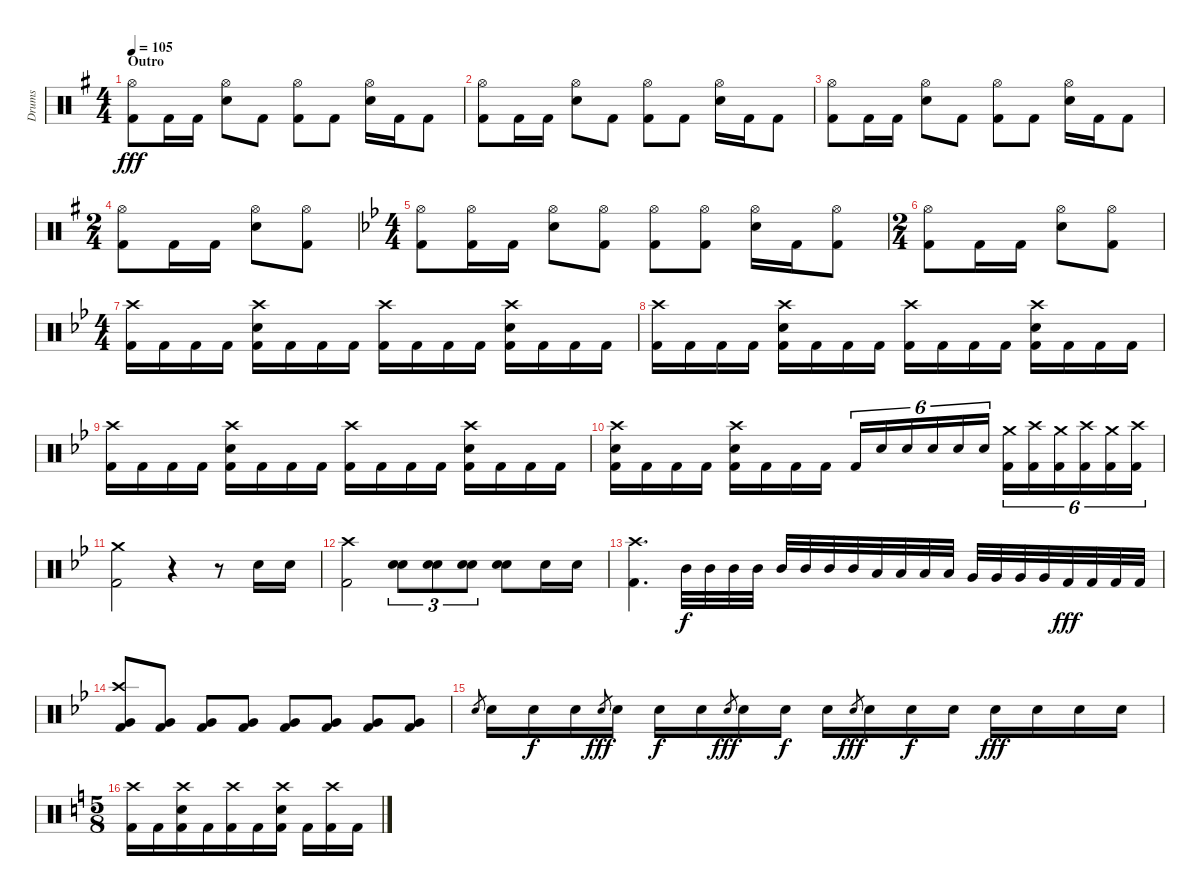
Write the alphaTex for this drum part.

\track ("Drums" "Drums") {instrument percussion}
\staff {score}
\articulation defaults
\ts (4 4)
\section ("" "Outro")
\tempo 105
\clef neutral
\ks eminor
("Hi-Hat (open)" "Kick (hit) 2").8{dy fff} "Kick (hit) 2".16 "Kick (hit) 2".16 ("Hi-Hat (open)" "Snare (hit) 2").8 "Kick (hit) 2".8 ("Hi-Hat (open)" "Kick (hit) 2").8 "Kick (hit) 2".8 ("Hi-Hat (open)" "Snare (hit) 2").16 "Kick (hit) 2".16 "Kick (hit) 2".8 |
("Hi-Hat (open)" "Kick (hit) 2").8 "Kick (hit) 2".16 "Kick (hit) 2".16 ("Hi-Hat (open)" "Snare (hit) 2").8 "Kick (hit) 2".8 ("Hi-Hat (open)" "Kick (hit) 2").8 "Kick (hit) 2".8 ("Hi-Hat (open)" "Snare (hit) 2").16 "Kick (hit) 2".16 "Kick (hit) 2".8 |
("Hi-Hat (open)" "Kick (hit) 2").8 "Kick (hit) 2".16 "Kick (hit) 2".16 ("Hi-Hat (open)" "Snare (hit) 2").8 "Kick (hit) 2".8 ("Hi-Hat (open)" "Kick (hit) 2").8 "Kick (hit) 2".8 ("Hi-Hat (open)" "Snare (hit) 2").16 "Kick (hit) 2".16 "Kick (hit) 2".8 |
\ts (2 4)
("Hi-Hat (open)" "Kick (hit) 2").8 "Kick (hit) 2".16 "Kick (hit) 2".16 ("Hi-Hat (open)" "Snare (hit) 2").8 ("Hi-Hat (open)" "Kick (hit) 2").8 |
\ts (4 4)
\ks gminor
("Hi-Hat (open)" "Kick (hit) 2").8 ("Hi-Hat (open)" "Kick (hit) 2").16 "Kick (hit) 2".16 ("Hi-Hat (open)" "Snare (hit) 2").8 ("Hi-Hat (open)" "Kick (hit) 2").8 ("Hi-Hat (open)" "Kick (hit) 2").8 ("Hi-Hat (open)" "Kick (hit) 2").8 ("Hi-Hat (open)" "Snare (hit) 2").16 "Kick (hit) 2".16 ("Hi-Hat (open)" "Kick (hit) 2").8 |
\ts (2 4)
("Hi-Hat (open)" "Kick (hit) 2").8 "Kick (hit) 2".16 "Kick (hit) 2".16 ("Hi-Hat (open)" "Snare (hit) 2").8 ("Hi-Hat (open)" "Kick (hit) 2").8 |
\ts (4 4)
("Crash high (hit)" "Kick (hit) 2").16 "Kick (hit) 2".16 "Kick (hit) 2".16 "Kick (hit) 2".16 ("Crash high (hit)" "Snare (hit) 2" "Kick (hit) 2").16 "Kick (hit) 2".16 "Kick (hit) 2".16 "Kick (hit) 2".16 ("Crash high (hit)" "Kick (hit) 2").16 "Kick (hit) 2".16 "Kick (hit) 2".16 "Kick (hit) 2".16 ("Crash high (hit)" "Snare (hit) 2" "Kick (hit) 2").16 "Kick (hit) 2".16 "Kick (hit) 2".16 "Kick (hit) 2".16 |
("Crash high (hit)" "Kick (hit) 2").16 "Kick (hit) 2".16 "Kick (hit) 2".16 "Kick (hit) 2".16 ("Crash high (hit)" "Snare (hit) 2" "Kick (hit) 2").16 "Kick (hit) 2".16 "Kick (hit) 2".16 "Kick (hit) 2".16 ("Crash high (hit)" "Kick (hit) 2").16 "Kick (hit) 2".16 "Kick (hit) 2".16 "Kick (hit) 2".16 ("Crash high (hit)" "Snare (hit) 2" "Kick (hit) 2").16 "Kick (hit) 2".16 "Kick (hit) 2".16 "Kick (hit) 2".16 |
("Crash high (hit)" "Kick (hit) 2").16 "Kick (hit) 2".16 "Kick (hit) 2".16 "Kick (hit) 2".16 ("Crash high (hit)" "Snare (hit) 2" "Kick (hit) 2").16 "Kick (hit) 2".16 "Kick (hit) 2".16 "Kick (hit) 2".16 ("Crash high (hit)" "Kick (hit) 2").16 "Kick (hit) 2".16 "Kick (hit) 2".16 "Kick (hit) 2".16 ("Crash high (hit)" "Snare (hit) 2" "Kick (hit) 2").16 "Kick (hit) 2".16 "Kick (hit) 2".16 "Kick (hit) 2".16 |
("Crash high (hit)" "Snare (hit) 2" "Kick (hit) 2").16 "Kick (hit) 2".16 "Kick (hit) 2".16 "Kick (hit) 2".16 ("Crash high (hit)" "Snare (hit) 2" "Kick (hit) 2").16 "Kick (hit) 2".16 "Kick (hit) 2".16 "Kick (hit) 2".16 "Kick (hit) 2".16{tu (6 4)} "Snare (hit) 2".16{tu (6 4)} "Snare (hit) 2".16{tu (6 4)} "Snare (hit) 2".16{tu (6 4)} "Snare (hit) 2".16{tu (6 4)} "Snare (hit) 2".16{tu (6 4)} ("Crash medium (hit)" "Kick (hit) 2").16{tu (6 4)} ("Crash high (hit)" "Kick (hit) 2").16{tu (6 4)} ("Crash medium (hit)" "Kick (hit) 2").16{tu (6 4)} ("Crash high (hit)" "Kick (hit) 2").16{tu (6 4)} ("Crash medium (hit)" "Kick (hit) 2").16{tu (6 4)} ("Crash high (hit)" "Kick (hit) 2").16{tu (6 4)} |
("Crash medium (hit)" "Kick (hit) 2").2 r.4 r.8 "Snare (hit) 2".16 "Snare (hit) 2".16 |
("Crash high (hit)" "Kick (hit) 2").2 ("Snare (hit) 2" "Snare (hit) 2").8{tu (3 2) bd 60} ("Snare (hit) 2" "Snare (hit) 2").8{tu (3 2) bd 60} ("Snare (hit) 2" "Snare (hit) 2").8{tu (3 2) bd 60} ("Snare (hit) 2" "Snare (hit) 2").8{bd 60} "Snare (hit) 2".16 "Snare (hit) 2".16 |
("Crash high (hit)" "Kick (hit) 2").4{d} "Mid Tom (hit)".32{dy f} "Mid Tom (hit)".32 "Mid Tom (hit)".32 "Mid Tom (hit)".32 "Mid Tom (hit)".32 "Mid Tom (hit)".32 "Mid Tom (hit)".32 "Mid Tom (hit)".32 "Low Tom (hit)".32 "Low Tom (hit)".32 "Low Tom (hit)".32 "Low Tom (hit)".32 "Very Low Tom (hit)".32 "Very Low Tom (hit)".32 "Very Low Tom (hit)".32 "Very Low Tom (hit)".32 "Kick (hit) 2".32{dy fff} "Kick (hit) 2".32 "Kick (hit) 2".32 "Kick (hit) 2".32 |
("Crash high (hit)" "Very Low Tom (hit)" "Kick (hit) 2").8 ("Very Low Tom (hit)" "Kick (hit) 2").8 ("Very Low Tom (hit)" "Kick (hit) 2").8 ("Very Low Tom (hit)" "Kick (hit) 2").8 ("Very Low Tom (hit)" "Kick (hit) 2").8 ("Very Low Tom (hit)" "Kick (hit) 2").8 ("Very Low Tom (hit)" "Kick (hit) 2").8 ("Very Low Tom (hit)" "Kick (hit) 2").8 |
"Snare (hit) 2".8{gr} "Snare (hit) 2".16 "Snare (hit) 2".16{dy f} "Snare (hit) 2".16 "Snare (hit) 2".8{gr dy fff} "Snare (hit) 2".16 "Snare (hit) 2".16{dy f} "Snare (hit) 2".16 "Snare (hit) 2".8{gr dy fff} "Snare (hit) 2".16 "Snare (hit) 2".16{dy f} "Snare (hit) 2".16 "Snare (hit) 2".8{gr dy fff} "Snare (hit) 2".16 "Snare (hit) 2".16{dy f} "Snare (hit) 2".16 "Snare (hit) 2".16{dy fff} "Snare (hit) 2".16 "Snare (hit) 2".16 "Snare (hit) 2".16 |
\ts (5 8)
\ks aminor
("Crash high (hit)" "Kick (hit) 2").16 "Kick (hit) 2".16{beam merge} ("Crash high (hit)" "Snare (hit) 2" "Kick (hit) 2").16 "Kick (hit) 2".16 ("Crash high (hit)" "Kick (hit) 2").16 "Kick (hit) 2".16{beam merge} ("Crash high (hit)" "Snare (hit) 2" "Kick (hit) 2").16{beam split} "Kick (hit) 2".16{beam merge} ("Crash high (hit)" "Kick (hit) 2").16 "Kick (hit) 2".16
